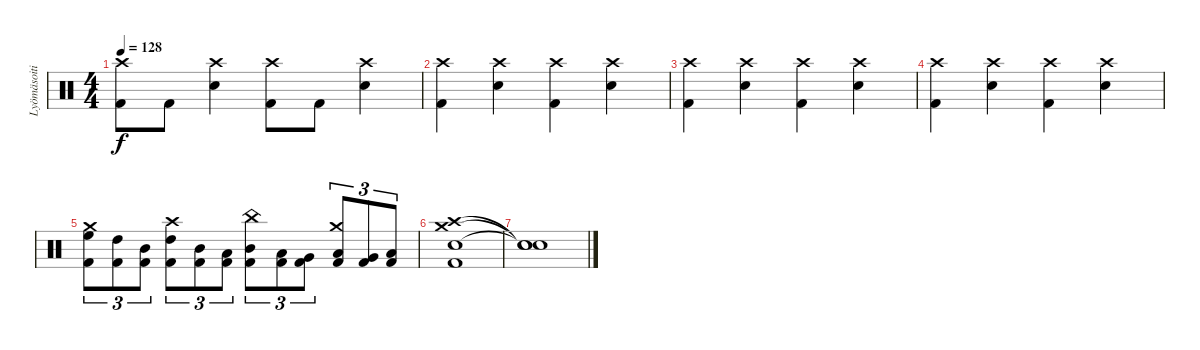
\track ("Lyömäsoitin" "Lyömäsoiti") {instrument percussion}
\staff {score}
\articulation defaults
\ts (4 4)
\tempo 128
\clef neutral
\ks c
("Crash high (hit)" "Kick (hit) 2").8{dy f} "Kick (hit) 2".8 ("Crash high (hit)" "Electric Snare (hit)").4 ("Crash high (hit)" "Kick (hit) 2").8 "Kick (hit) 2".8 ("Crash high (hit)" "Electric Snare (hit)").4 |
("Crash high (hit)" "Kick (hit) 2").4 ("Crash high (hit)" "Electric Snare (hit)").4 ("Crash high (hit)" "Kick (hit) 2").4 ("Crash high (hit)" "Electric Snare (hit)").4 |
("Crash high (hit)" "Kick (hit) 2").4 ("Crash high (hit)" "Electric Snare (hit)").4 ("Crash high (hit)" "Kick (hit) 2").4 ("Crash high (hit)" "Electric Snare (hit)").4 |
("Crash high (hit)" "Kick (hit) 2").4 ("Crash high (hit)" "Electric Snare (hit)").4 ("Crash high (hit)" "Kick (hit) 2").4 ("Crash high (hit)" "Electric Snare (hit)").4 |
("Crash medium (hit)" "High Floor Tom (hit)" "Kick (hit) 2").8{tu (3 2)} ("High Tom (hit)" "Kick (hit) 2").8{tu (3 2)} ("Mid Tom (hit)" "Kick (hit) 2").8{tu (3 2)} ("Crash high (hit)" "High Tom (hit)" "Kick (hit) 2").8{tu (3 2)} ("Mid Tom (hit)" "Kick (hit) 2").8{tu (3 2)} ("Low Tom (hit)" "Kick (hit) 2").8{tu (3 2)} ("China (hit)" "Mid Tom (hit)" "Kick (hit) 2").8{tu (3 2)} ("Low Tom (hit)" "Kick (hit) 2").8{tu (3 2)} ("Very Low Tom (hit)" "Kick (hit) 2").8{tu (3 2)} ("Crash medium (hit)" "Low Tom (hit)" "Kick (hit) 2").8{tu (3 2)} ("Very Low Tom (hit)" "Kick (hit) 2").8{tu (3 2)} ("Low Floor Tom (hit)" "Kick (hit) 2").8{tu (3 2)} |
("Crash high (hit)" "Crash medium (hit)" "Electric Snare (hit)" "Kick (hit) 2").1 |
("Snare (hit)"{t} "Snare (hit)"{t} "Snare (hit)"{t}).1
